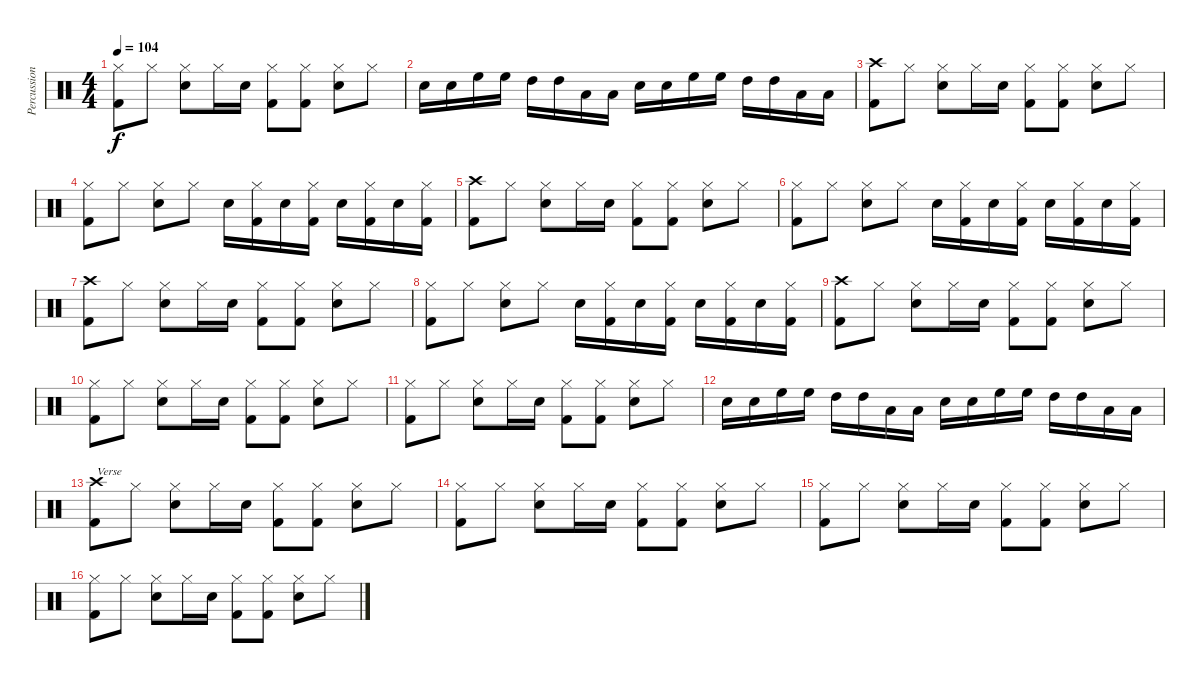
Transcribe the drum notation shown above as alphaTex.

\track ("Percussion" "Percussion") {instrument percussion}
\staff {score}
\articulation defaults
\ts (4 4)
\tempo 104
\clef neutral
\ks c
("Hi-Hat (closed)" "Kick (hit) 2").8{dy f} "Hi-Hat (closed)".8 ("Hi-Hat (closed)" "Snare (hit) 2").8 "Hi-Hat (closed)".16 "Snare (hit) 2".16 ("Hi-Hat (closed)" "Kick (hit) 2").8 ("Hi-Hat (closed)" "Kick (hit) 2").8 ("Hi-Hat (closed)" "Snare (hit) 2").8 "Hi-Hat (closed)".8 |
"Snare (hit) 2".16 "Snare (hit) 2".16 "High Floor Tom (hit)".16 "High Floor Tom (hit)".16 "High Tom (hit)".16 "High Tom (hit)".16 "Low Tom (hit)".16 "Low Tom (hit)".16 "Snare (hit) 2".16 "Snare (hit) 2".16 "High Floor Tom (hit)".16 "High Floor Tom (hit)".16 "High Tom (hit)".16 "High Tom (hit)".16 "Low Tom (hit)".16 "Low Tom (hit)".16 |
("Crash high (hit)" "Kick (hit) 2").8 "Hi-Hat (closed)".8 ("Hi-Hat (closed)" "Snare (hit) 2").8 "Hi-Hat (closed)".16 "Snare (hit) 2".16 ("Hi-Hat (closed)" "Kick (hit) 2").8 ("Hi-Hat (closed)" "Kick (hit) 2").8 ("Hi-Hat (closed)" "Snare (hit) 2").8 "Hi-Hat (closed)".8 |
("Hi-Hat (closed)" "Kick (hit) 2").8 "Hi-Hat (closed)".8 ("Hi-Hat (closed)" "Snare (hit) 2").8 "Hi-Hat (closed)".8 "Snare (hit) 2".16 ("Hi-Hat (closed)" "Kick (hit) 2").16 "Snare (hit) 2".16 ("Hi-Hat (closed)" "Kick (hit) 2").16 "Snare (hit) 2".16 ("Hi-Hat (closed)" "Kick (hit) 2").16 "Snare (hit) 2".16 ("Hi-Hat (closed)" "Kick (hit) 2").16 |
("Crash high (hit)" "Kick (hit) 2").8 "Hi-Hat (closed)".8 ("Hi-Hat (closed)" "Snare (hit) 2").8 "Hi-Hat (closed)".16 "Snare (hit) 2".16 ("Hi-Hat (closed)" "Kick (hit) 2").8 ("Hi-Hat (closed)" "Kick (hit) 2").8 ("Hi-Hat (closed)" "Snare (hit) 2").8 "Hi-Hat (closed)".8 |
("Hi-Hat (closed)" "Kick (hit) 2").8 "Hi-Hat (closed)".8 ("Hi-Hat (closed)" "Snare (hit) 2").8 "Hi-Hat (closed)".8 "Snare (hit) 2".16 ("Hi-Hat (closed)" "Kick (hit) 2").16 "Snare (hit) 2".16 ("Hi-Hat (closed)" "Kick (hit) 2").16 "Snare (hit) 2".16 ("Hi-Hat (closed)" "Kick (hit) 2").16 "Snare (hit) 2".16 ("Hi-Hat (closed)" "Kick (hit) 2").16 |
("Crash high (hit)" "Kick (hit) 2").8 "Hi-Hat (closed)".8 ("Hi-Hat (closed)" "Snare (hit) 2").8 "Hi-Hat (closed)".16 "Snare (hit) 2".16 ("Hi-Hat (closed)" "Kick (hit) 2").8 ("Hi-Hat (closed)" "Kick (hit) 2").8 ("Hi-Hat (closed)" "Snare (hit) 2").8 "Hi-Hat (closed)".8 |
("Hi-Hat (closed)" "Kick (hit) 2").8 "Hi-Hat (closed)".8 ("Hi-Hat (closed)" "Snare (hit) 2").8 "Hi-Hat (closed)".8 "Snare (hit) 2".16 ("Hi-Hat (closed)" "Kick (hit) 2").16 "Snare (hit) 2".16 ("Hi-Hat (closed)" "Kick (hit) 2").16 "Snare (hit) 2".16 ("Hi-Hat (closed)" "Kick (hit) 2").16 "Snare (hit) 2".16 ("Hi-Hat (closed)" "Kick (hit) 2").16 |
("Crash high (hit)" "Kick (hit) 2").8 "Hi-Hat (closed)".8 ("Hi-Hat (closed)" "Snare (hit) 2").8 "Hi-Hat (closed)".16 "Snare (hit) 2".16 ("Hi-Hat (closed)" "Kick (hit) 2").8 ("Hi-Hat (closed)" "Kick (hit) 2").8 ("Hi-Hat (closed)" "Snare (hit) 2").8 "Hi-Hat (closed)".8 |
("Hi-Hat (closed)" "Kick (hit) 2").8 "Hi-Hat (closed)".8 ("Hi-Hat (closed)" "Snare (hit) 2").8 "Hi-Hat (closed)".16 "Snare (hit) 2".16 ("Hi-Hat (closed)" "Kick (hit) 2").8 ("Hi-Hat (closed)" "Kick (hit) 2").8 ("Hi-Hat (closed)" "Snare (hit) 2").8 "Hi-Hat (closed)".8 |
("Hi-Hat (closed)" "Kick (hit) 2").8 "Hi-Hat (closed)".8 ("Hi-Hat (closed)" "Snare (hit) 2").8 "Hi-Hat (closed)".16 "Snare (hit) 2".16 ("Hi-Hat (closed)" "Kick (hit) 2").8 ("Hi-Hat (closed)" "Kick (hit) 2").8 ("Hi-Hat (closed)" "Snare (hit) 2").8 "Hi-Hat (closed)".8 |
"Snare (hit) 2".16 "Snare (hit) 2".16 "High Floor Tom (hit)".16 "High Floor Tom (hit)".16 "High Tom (hit)".16 "High Tom (hit)".16 "Low Tom (hit)".16 "Low Tom (hit)".16 "Snare (hit) 2".16 "Snare (hit) 2".16 "High Floor Tom (hit)".16 "High Floor Tom (hit)".16 "High Tom (hit)".16 "High Tom (hit)".16 "Low Tom (hit)".16 "Low Tom (hit)".16 |
("Crash high (hit)" "Kick (hit) 2").8{txt "Verse"} "Hi-Hat (closed)".8 ("Hi-Hat (closed)" "Snare (hit) 2").8 "Hi-Hat (closed)".16 "Snare (hit) 2".16 ("Hi-Hat (closed)" "Kick (hit) 2").8 ("Hi-Hat (closed)" "Kick (hit) 2").8 ("Hi-Hat (closed)" "Snare (hit) 2").8 "Hi-Hat (closed)".8 |
("Hi-Hat (closed)" "Kick (hit) 2").8 "Hi-Hat (closed)".8 ("Hi-Hat (closed)" "Snare (hit) 2").8 "Hi-Hat (closed)".16 "Snare (hit) 2".16 ("Hi-Hat (closed)" "Kick (hit) 2").8 ("Hi-Hat (closed)" "Kick (hit) 2").8 ("Hi-Hat (closed)" "Snare (hit) 2").8 "Hi-Hat (closed)".8 |
("Hi-Hat (closed)" "Kick (hit) 2").8 "Hi-Hat (closed)".8 ("Hi-Hat (closed)" "Snare (hit) 2").8 "Hi-Hat (closed)".16 "Snare (hit) 2".16 ("Hi-Hat (closed)" "Kick (hit) 2").8 ("Hi-Hat (closed)" "Kick (hit) 2").8 ("Hi-Hat (closed)" "Snare (hit) 2").8 "Hi-Hat (closed)".8 |
("Hi-Hat (closed)" "Kick (hit) 2").8 "Hi-Hat (closed)".8 ("Hi-Hat (closed)" "Snare (hit) 2").8 "Hi-Hat (closed)".16 "Snare (hit) 2".16 ("Hi-Hat (closed)" "Kick (hit) 2").8 ("Hi-Hat (closed)" "Kick (hit) 2").8 ("Hi-Hat (closed)" "Snare (hit) 2").8 "Hi-Hat (closed)".8
